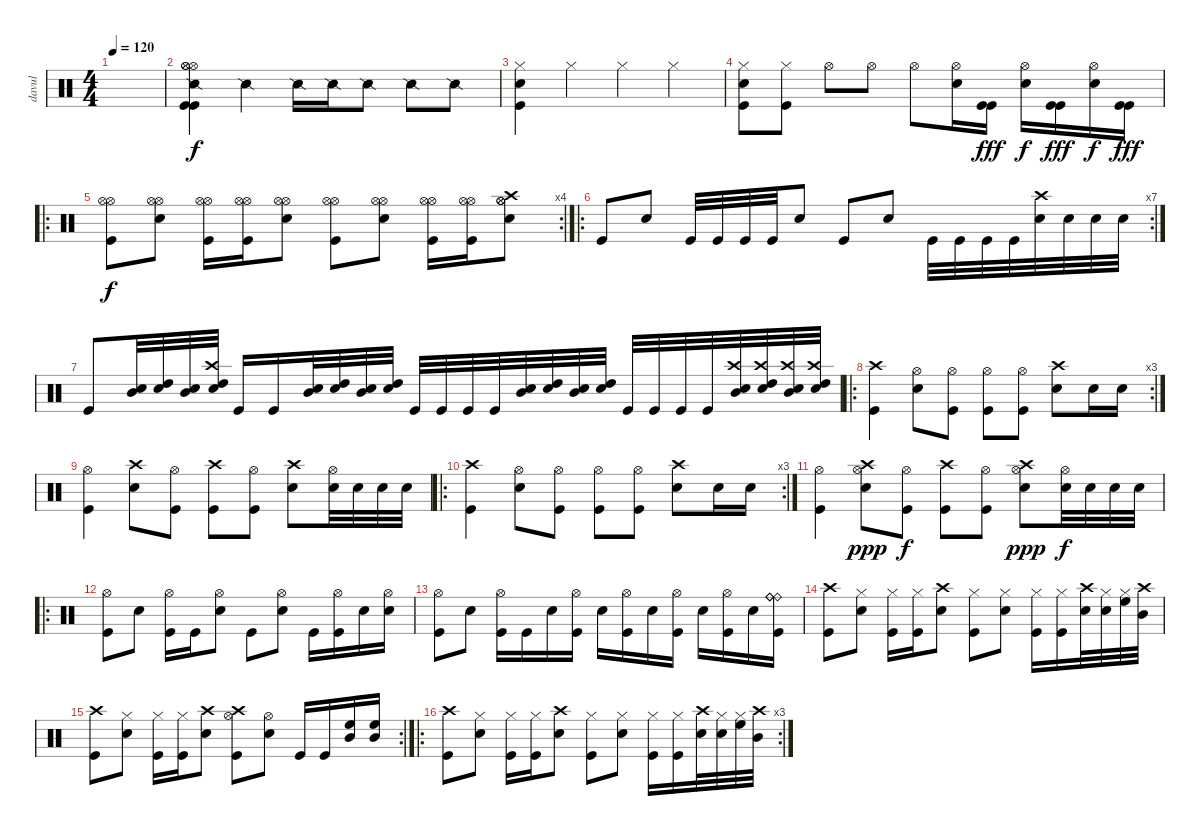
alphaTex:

\track ("davul" "davul") {instrument percussion}
\staff {score}
\articulation defaults
\ts (4 4)
\tempo 120
\clef neutral
\ks c
|
("Hi-Hat (open)" "Hi-Hat (open)" "Hi-Hat (open)" "Kick (hit)" "Kick (hit)" "Snare (side stick) 2").4 "Snare (side stick) 2".4{dy f} "Snare (side stick) 2".16 "Snare (side stick) 2".16 "Snare (side stick) 2".8 "Snare (side stick) 2".8 "Snare (side stick) 2".8 |
("Snare (hit) 2" "Kick (hit)" "Hi-Hat (closed)").4 "Hi-Hat (closed)".4 "Hi-Hat (closed)".4 "Hi-Hat (closed)".4 |
("Snare (hit) 2" "Kick (hit)" "Hi-Hat (closed)").8 ("Kick (hit)" "Hi-Hat (closed)").8 "Hi-Hat (open)".8 "Hi-Hat (open)".8 "Hi-Hat (open)".8 ("Hi-Hat (open)" "Snare (hit) 2").16 ("Kick (hit)" "Kick (hit)").16{dy fff} ("Hi-Hat (open)" "Snare (hit) 2").16{dy f} ("Kick (hit)" "Kick (hit)").16{dy fff} ("Hi-Hat (open)" "Snare (hit) 2").16{dy f} ("Kick (hit)" "Kick (hit)").16{dy fff} |
\ro
\rc 4
("Hi-Hat (open)" "Hi-Hat (open)" "Kick (hit)").8{dy f} ("Hi-Hat (open)" "Hi-Hat (open)" "Snare (hit) 2").8 ("Hi-Hat (open)" "Hi-Hat (open)" "Kick (hit)").16 ("Hi-Hat (open)" "Hi-Hat (open)" "Kick (hit)").16 ("Hi-Hat (open)" "Hi-Hat (open)" "Snare (hit) 2").8 ("Hi-Hat (open)" "Hi-Hat (open)" "Kick (hit)").8 ("Hi-Hat (open)" "Hi-Hat (open)" "Snare (hit) 2").8 ("Hi-Hat (open)" "Hi-Hat (open)" "Kick (hit)").16 ("Hi-Hat (open)" "Hi-Hat (open)" "Kick (hit)").16 ("Crash high (hit)" "Hi-Hat (open)" "Hi-Hat (open)" "Snare (hit) 2").8 |
\ro
\rc 7 "Kick (hit)".8 "Snare (hit) 2".8 "Kick (hit)".32 "Kick (hit)".32 "Kick (hit)".32 "Kick (hit)".32 "Snare (hit) 2".8 "Kick (hit)".8 "Snare (hit) 2".8 "Kick (hit)".32 "Kick (hit)".32 "Kick (hit)".32 "Kick (hit)".32
("Crash high (hit)" "Snare (hit) 2").32 "Snare (hit) 2".32 "Snare (hit) 2".32 "Snare (hit) 2".32 |
"Kick (hit)".8 ("Mid Tom (hit)" "Snare (hit) 2").32 ("High Tom (hit)" "Snare (hit) 2").32 ("Mid Tom (hit)" "Snare (hit) 2").32 ("Crash high (hit)" "High Tom (hit)" "Snare (hit) 2").32 "Kick (hit)".16 "Kick (hit)".16 ("Mid Tom (hit)" "Snare (hit) 2").32 ("High Tom (hit)" "Snare (hit) 2").32 ("Mid Tom (hit)" "Snare (hit) 2").32 ("High Tom (hit)" "Snare (hit) 2").32 "Kick (hit)".32 "Kick (hit)".32 "Kick (hit)".32 "Kick (hit)".32 ("Mid Tom (hit)" "Snare (hit) 2").32 ("High Tom (hit)" "Snare (hit) 2").32 ("Mid Tom (hit)" "Snare (hit) 2").32 ("High Tom (hit)" "Snare (hit) 2").32 "Kick (hit)".32 "Kick (hit)".32 "Kick (hit)".32 "Kick (hit)".32 ("Crash high (hit)" "Mid Tom (hit)" "Snare (hit) 2").32 ("Crash high (hit)" "High Tom (hit)" "Snare (hit) 2").32 ("Crash high (hit)" "Mid Tom (hit)" "Snare (hit) 2").32 ("Crash high (hit)" "High Tom (hit)" "Snare (hit) 2").32 |
\ro
\rc 3
("Crash high (hit)" "Kick (hit)").4 ("Hi-Hat (open)" "Snare (hit) 2").8 ("Hi-Hat (open)" "Kick (hit)").8 ("Hi-Hat (open)" "Kick (hit)").8 ("Hi-Hat (open)" "Kick (hit)").8 ("Crash high (hit)" "Snare (hit) 2").8 "Snare (hit) 2".16 "Snare (hit) 2".16 |
("Hi-Hat (open)" "Kick (hit)").4 ("Crash high (hit)" "Snare (hit) 2").8 ("Hi-Hat (open)" "Kick (hit)").8 ("Crash high (hit)" "Kick (hit)").8 ("Hi-Hat (open)" "Kick (hit)").8 ("Crash high (hit)" "Snare (hit) 2").8 ("Hi-Hat (open)" "Snare (hit) 2").32 "Snare (hit) 2".32 "Snare (hit) 2".32 "Snare (hit) 2".32 |
\ro
\rc 3
("Crash high (hit)" "Kick (hit)").4 ("Hi-Hat (open)" "Snare (hit) 2").8 ("Hi-Hat (open)" "Kick (hit)").8 ("Hi-Hat (open)" "Kick (hit)").8 ("Hi-Hat (open)" "Kick (hit)").8 ("Crash high (hit)" "Snare (hit) 2").8 "Snare (hit) 2".16 "Snare (hit) 2".16 |
("Hi-Hat (open)" "Kick (hit)").4 ("Hi-Hat (open)" "Crash high (hit)" "Snare (hit) 2").8{dy ppp} ("Hi-Hat (open)" "Kick (hit)").8{dy f} ("Crash high (hit)" "Kick (hit)").8 ("Hi-Hat (open)" "Kick (hit)").8 ("Hi-Hat (open)" "Crash high (hit)" "Snare (hit) 2").8{dy ppp} ("Hi-Hat (open)" "Snare (hit) 2").32{dy f} "Snare (hit) 2".32 "Snare (hit) 2".32 "Snare (hit) 2".32 |
\ro
("Hi-Hat (open)" "Kick (hit)").8 "Snare (hit) 2".8 ("Hi-Hat (open)" "Kick (hit)").16 "Kick (hit)".16 ("Hi-Hat (open)" "Snare (hit) 2").8 "Kick (hit)".8 ("Hi-Hat (open)" "Snare (hit) 2").8 "Kick (hit)".16 ("Hi-Hat (open)" "Kick (hit)").16 "Snare (hit) 2".16 ("Hi-Hat (open)" "Snare (hit) 2").16 |
("Hi-Hat (open)" "Kick (hit)").8 "Snare (hit) 2".8 ("Hi-Hat (open)" "Kick (hit)").16 "Kick (hit)".16 "Snare (hit) 2".16 ("Hi-Hat (open)" "Kick (hit)").16 "Snare (hit) 2".16 ("Hi-Hat (open)" "Kick (hit)").16 "Snare (hit) 2".16 ("Hi-Hat (open)" "Kick (hit)").16 "Snare (hit) 2".16 ("Hi-Hat (open)" "Kick (hit)").16 "Snare (hit) 2".16 ("Ride (bell)" "Ride (bell)" "Ride (bell)" "Kick (hit)").16 |
("Crash high (hit)" "Kick (hit)").8 ("Hi-Hat (closed)" "Snare (hit) 2").8 ("Hi-Hat (closed)" "Kick (hit)").16 ("Hi-Hat (closed)" "Kick (hit)").16 ("Crash high (hit)" "Snare (hit) 2").8 ("Hi-Hat (closed)" "Kick (hit)").8 ("Hi-Hat (closed)" "Snare (hit) 2").8 ("Hi-Hat (closed)" "Kick (hit)").16 ("Hi-Hat (closed)" "Kick (hit)").16 ("Crash high (hit)" "Snare (hit) 2").32 ("Hi-Hat (closed)" "Snare (hit) 2").32 ("Hi-Hat (closed)" "High Floor Tom (hit)").32 ("Crash high (hit)" "Mid Tom (hit)").32 |
\rc 2
("Crash high (hit)" "Kick (hit)").8 ("Hi-Hat (closed)" "Snare (hit) 2").8 ("Hi-Hat (closed)" "Kick (hit)").16 ("Hi-Hat (closed)" "Kick (hit)").16 ("Crash high (hit)" "Snare (hit) 2").8 ("Crash high (hit)" "Hi-Hat (open)" "Kick (hit)").8 ("Hi-Hat (open)" "Snare (hit) 2").8 "Kick (hit)".16 "Kick (hit)".16 ("High Floor Tom (hit)" "Mid Tom (hit)").16 ("High Floor Tom (hit)" "Mid Tom (hit)").16 |
\ro
\rc 3
("Crash high (hit)" "Kick (hit)").8 ("Hi-Hat (closed)" "Snare (hit) 2").8 ("Hi-Hat (closed)" "Kick (hit)").16 ("Hi-Hat (closed)" "Kick (hit)").16 ("Crash high (hit)" "Snare (hit) 2").8 ("Hi-Hat (closed)" "Kick (hit)").8 ("Hi-Hat (closed)" "Snare (hit) 2").8 ("Hi-Hat (closed)" "Kick (hit)").16 ("Hi-Hat (closed)" "Kick (hit)").16 ("Crash high (hit)" "Snare (hit) 2").32 ("Hi-Hat (closed)" "Snare (hit) 2").32 ("Hi-Hat (closed)" "High Floor Tom (hit)").32 ("Crash high (hit)" "Mid Tom (hit)").32
